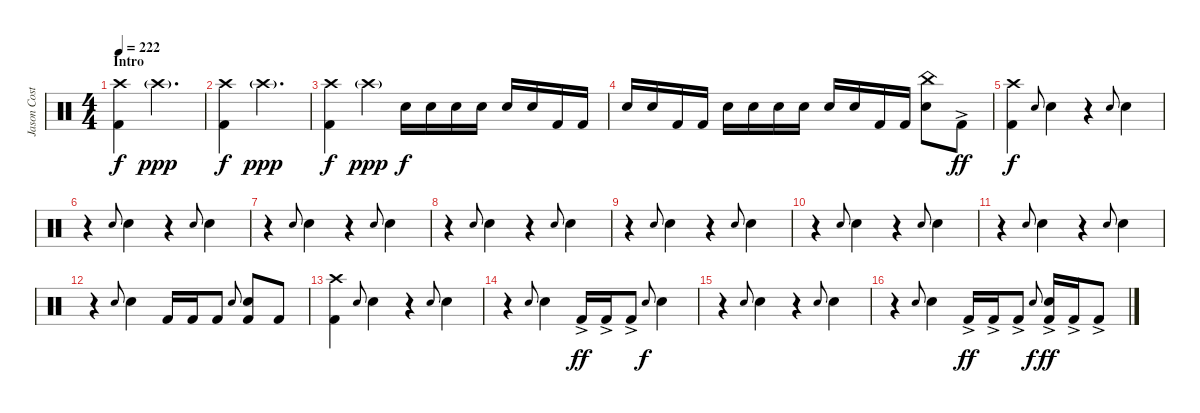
\track ("Jason Costa" "Jason Cost") {instrument percussion}
\staff {score}
\articulation defaults
\ts (4 4)
\section ("" "Intro")
\tempo 222
\clef neutral
\ks c
("Crash high (hit)" "Kick (hit) 2").4{dy f} "Crash high (hit)"{g}.2{d dy ppp} |
("Crash high (hit)" "Kick (hit) 2").4{dy f} "Crash high (hit)"{g}.2{d dy ppp} |
("Crash high (hit)" "Kick (hit) 2").4{dy f} "Crash high (hit)"{g}.4{dy ppp} "Electric Snare (hit)".16{dy f} "Electric Snare (hit)".16 "Electric Snare (hit)".16 "Electric Snare (hit)".16 "Electric Snare (hit)".16 "Electric Snare (hit)".16 "Kick (hit) 2".16 "Kick (hit) 2".16 |
"Electric Snare (hit)".16 "Electric Snare (hit)".16 "Kick (hit) 2".16 "Kick (hit) 2".16 "Electric Snare (hit)".16 "Electric Snare (hit)".16 "Electric Snare (hit)".16 "Electric Snare (hit)".16 "Electric Snare (hit)".16 "Electric Snare (hit)".16 "Kick (hit) 2".16 "Kick (hit) 2".16 ("China (hit)" "Electric Snare (hit)").8 "Kick (hit) 2"{ac}.8{dy ff} |
("Crash high (hit)" "Kick (hit) 2").4{dy f} "Electric Snare (hit)".8{gr onbeat} "Electric Snare (hit)".4 r.4 "Electric Snare (hit)".8{gr onbeat} "Electric Snare (hit)".4 |
r.4 "Electric Snare (hit)".8{gr onbeat} "Electric Snare (hit)".4 r.4 "Electric Snare (hit)".8{gr onbeat} "Electric Snare (hit)".4 |
r.4 "Electric Snare (hit)".8{gr onbeat} "Electric Snare (hit)".4 r.4 "Electric Snare (hit)".8{gr onbeat} "Electric Snare (hit)".4 |
r.4 "Electric Snare (hit)".8{gr onbeat} "Electric Snare (hit)".4 r.4 "Electric Snare (hit)".8{gr onbeat} "Electric Snare (hit)".4 |
r.4 "Electric Snare (hit)".8{gr onbeat} "Electric Snare (hit)".4 r.4 "Electric Snare (hit)".8{gr onbeat} "Electric Snare (hit)".4 |
r.4 "Electric Snare (hit)".8{gr onbeat} "Electric Snare (hit)".4 r.4 "Electric Snare (hit)".8{gr onbeat} "Electric Snare (hit)".4 |
r.4 "Electric Snare (hit)".8{gr onbeat} "Electric Snare (hit)".4 r.4 "Electric Snare (hit)".8{gr onbeat} "Electric Snare (hit)".4 |
r.4 "Electric Snare (hit)".8{gr onbeat} "Electric Snare (hit)".4 "Kick (hit) 2".16 "Kick (hit) 2".16 "Kick (hit) 2".8 "Electric Snare (hit)".8{gr onbeat} ("Electric Snare (hit)" "Kick (hit) 2").8 "Kick (hit) 2".8 |
("Crash high (hit)" "Kick (hit) 2").4 "Electric Snare (hit)".8{gr onbeat} "Electric Snare (hit)".4 r.4 "Electric Snare (hit)".8{gr onbeat} "Electric Snare (hit)".4 |
r.4 "Electric Snare (hit)".8{gr onbeat} "Electric Snare (hit)".4 "Kick (hit) 2"{ac}.16{dy ff} "Kick (hit) 2"{ac}.16 "Kick (hit) 2"{ac}.8 "Electric Snare (hit)".8{gr onbeat dy f} "Electric Snare (hit)".4 |
r.4 "Electric Snare (hit)".8{gr onbeat} "Electric Snare (hit)".4 r.4 "Electric Snare (hit)".8{gr onbeat} "Electric Snare (hit)".4 |
r.4 "Electric Snare (hit)".8{gr onbeat} "Electric Snare (hit)".4 "Kick (hit) 2"{ac}.16{dy ff} "Kick (hit) 2"{ac}.16 "Kick (hit) 2"{ac}.8 "Electric Snare (hit)".8{gr onbeat dy f} ("Electric Snare (hit)" "Kick (hit) 2"{ac}).16{dy ff} "Kick (hit) 2"{ac}.16 "Kick (hit) 2"{ac}.8
